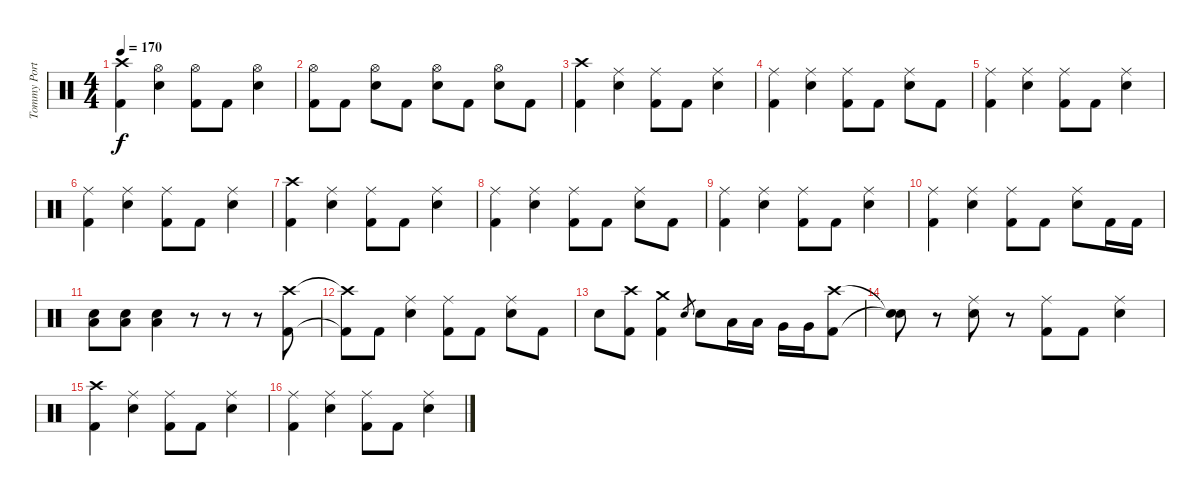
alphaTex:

\track ("Tommy Portino" "Tommy Port") {instrument percussion}
\staff {score}
\articulation defaults
\ts (4 4)
\tempo 170
\clef neutral
\ks c
("Crash high (hit)" "Kick (hit) 2").4{dy f} ("Hi-Hat (open)" "Electric Snare (hit)").4 ("Hi-Hat (open)" "Kick (hit) 2").8 "Kick (hit) 2".8 ("Hi-Hat (open)" "Electric Snare (hit)").4 |
("Hi-Hat (open)" "Kick (hit) 2").8 "Kick (hit) 2".8 ("Hi-Hat (open)" "Electric Snare (hit)").8 "Kick (hit) 2".8 ("Hi-Hat (open)" "Electric Snare (hit)").8 "Kick (hit) 2".8 ("Hi-Hat (open)" "Electric Snare (hit)").8 "Kick (hit) 2".8 |
("Crash high (hit)" "Kick (hit) 2").4 ("Ride (middle)" "Electric Snare (hit)").4 ("Ride (middle)" "Kick (hit) 2").8 "Kick (hit) 2".8 ("Ride (middle)" "Electric Snare (hit)").4 |
("Ride (middle)" "Kick (hit) 2").4 ("Ride (middle)" "Electric Snare (hit)").4 ("Ride (middle)" "Kick (hit) 2").8 "Kick (hit) 2".8 ("Ride (middle)" "Electric Snare (hit)").8 "Kick (hit) 2".8 |
("Ride (middle)" "Kick (hit) 2").4 ("Ride (middle)" "Electric Snare (hit)").4 ("Ride (middle)" "Kick (hit) 2").8 "Kick (hit) 2".8 ("Ride (middle)" "Electric Snare (hit)").4 |
("Ride (middle)" "Kick (hit) 2").4 ("Ride (middle)" "Electric Snare (hit)").4 ("Ride (middle)" "Kick (hit) 2").8 "Kick (hit) 2".8 ("Ride (middle)" "Electric Snare (hit)").4 |
("Crash high (hit)" "Kick (hit) 2").4 ("Ride (middle)" "Electric Snare (hit)").4 ("Ride (middle)" "Kick (hit) 2").8 "Kick (hit) 2".8 ("Ride (middle)" "Electric Snare (hit)").4 |
("Ride (middle)" "Kick (hit) 2").4 ("Ride (middle)" "Electric Snare (hit)").4 ("Ride (middle)" "Kick (hit) 2").8 "Kick (hit) 2".8 ("Ride (middle)" "Electric Snare (hit)").8 "Kick (hit) 2".8 |
("Ride (middle)" "Kick (hit) 2").4 ("Ride (middle)" "Electric Snare (hit)").4 ("Ride (middle)" "Kick (hit) 2").8 "Kick (hit) 2".8 ("Ride (middle)" "Electric Snare (hit)").4 |
("Ride (middle)" "Kick (hit) 2").4 ("Ride (middle)" "Electric Snare (hit)").4 ("Ride (middle)" "Kick (hit) 2").8 "Kick (hit) 2".8 ("Ride (middle)" "Electric Snare (hit)").8 "Kick (hit) 2".16 "Kick (hit) 2".16 |
("Electric Snare (hit)" "Low Floor Tom (hit)").8 ("Electric Snare (hit)" "Low Floor Tom (hit)").8 ("Electric Snare (hit)" "Low Floor Tom (hit)").4 r.8 r.8 r.8 ("Crash high (hit)" "Kick (hit) 2").8 |
("Crash high (hit)"{t} "Kick (hit) 2"{t}).8 "Kick (hit) 2".8 ("Ride (middle)" "Electric Snare (hit)").4 ("Ride (middle)" "Kick (hit) 2").8 "Kick (hit) 2".8 ("Ride (middle)" "Electric Snare (hit)").8 "Kick (hit) 2".8 |
"Electric Snare (hit)".8 ("Crash high (hit)" "Kick (hit) 2").8 ("Crash medium (hit)" "Kick (hit) 2").4 "Electric Snare (hit)".8{gr} "Electric Snare (hit)".8 "Low Tom (hit)".16 "Low Tom (hit)".16 "Very Low Tom (hit)".16 "Very Low Tom (hit)".16 ("Crash high (hit)" "Kick (hit) 2").8 |
("Snare (hit)"{t} "Snare (hit)"{t}).8 r.8 ("Ride (middle)" "Electric Snare (hit)").8 r.8 ("Ride (middle)" "Kick (hit) 2").8 "Kick (hit) 2".8 ("Ride (middle)" "Electric Snare (hit)").4 |
("Crash high (hit)" "Kick (hit) 2").4 ("Ride (middle)" "Electric Snare (hit)").4 ("Ride (middle)" "Kick (hit) 2").8 "Kick (hit) 2".8 ("Ride (middle)" "Electric Snare (hit)").4 |
("Ride (middle)" "Kick (hit) 2").4 ("Ride (middle)" "Electric Snare (hit)").4 ("Ride (middle)" "Kick (hit) 2").8 "Kick (hit) 2".8 ("Ride (middle)" "Electric Snare (hit)").4
